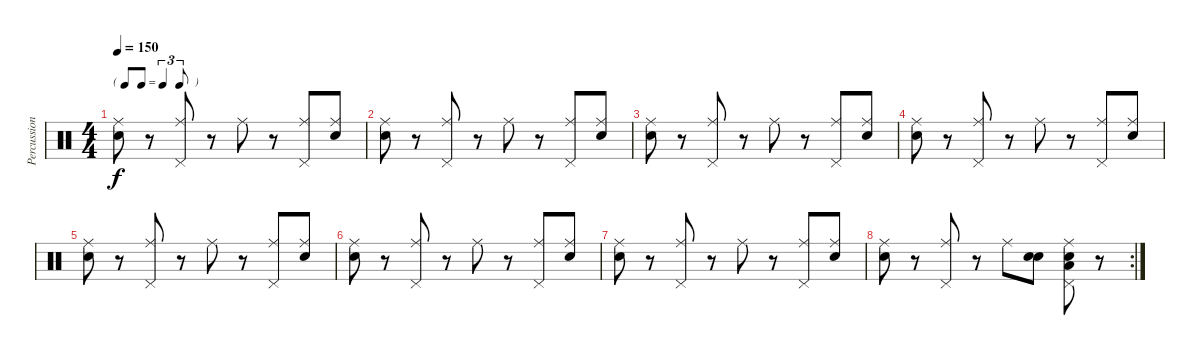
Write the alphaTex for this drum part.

\track ("Percussions" "Percussion") {instrument percussion}
\staff {score}
\articulation defaults
\ts (4 4)
\tf triplet8th
\tempo 150
\clef neutral
\ks c
("Snare (hit)" "Ride (middle)").8{dy f} r.8 ("Ride (middle)" "Pedal Hi-Hat (hit)").8 r.8 "Ride (middle)".8 r.8 ("Ride (middle)" "Pedal Hi-Hat (hit)").8 ("Snare (hit)" "Ride (middle)").8 |
("Snare (hit)" "Ride (middle)").8 r.8 ("Ride (middle)" "Pedal Hi-Hat (hit)").8 r.8 "Ride (middle)".8 r.8 ("Ride (middle)" "Pedal Hi-Hat (hit)").8 ("Snare (hit)" "Ride (middle)").8 |
("Snare (hit)" "Ride (middle)").8 r.8 ("Ride (middle)" "Pedal Hi-Hat (hit)").8 r.8 "Ride (middle)".8 r.8 ("Ride (middle)" "Pedal Hi-Hat (hit)").8 ("Snare (hit)" "Ride (middle)").8 |
("Snare (hit)" "Ride (middle)").8 r.8 ("Ride (middle)" "Pedal Hi-Hat (hit)").8 r.8 "Ride (middle)".8 r.8 ("Ride (middle)" "Pedal Hi-Hat (hit)").8 ("Snare (hit)" "Ride (middle)").8 |
("Snare (hit)" "Ride (middle)").8 r.8 ("Ride (middle)" "Pedal Hi-Hat (hit)").8 r.8 "Ride (middle)".8 r.8 ("Pedal Hi-Hat (hit)" "Ride (middle)").8 ("Snare (hit)" "Ride (middle)").8 |
("Snare (hit)" "Ride (middle)").8 r.8 ("Pedal Hi-Hat (hit)" "Ride (middle)").8 r.8 "Ride (middle)".8 r.8 ("Ride (middle)" "Pedal Hi-Hat (hit)").8 ("Snare (hit)" "Ride (middle)").8 |
("Snare (hit)" "Ride (middle)").8 r.8 ("Pedal Hi-Hat (hit)" "Ride (middle)").8 r.8 "Ride (middle)".8 r.8 ("Ride (middle)" "Pedal Hi-Hat (hit)").8 ("Snare (hit)" "Ride (middle)").8 |
\rc 2
("Snare (hit)" "Ride (middle)").8 r.8 ("Pedal Hi-Hat (hit)" "Ride (middle)").8 r.8 "Ride (middle)".8 ("Snare (hit)" "Hand Clap (hit)").8 ("Snare (hit)" "Ride (middle)" "Pedal Hi-Hat (hit)" "Low Floor Tom (hit)").8 r.8
